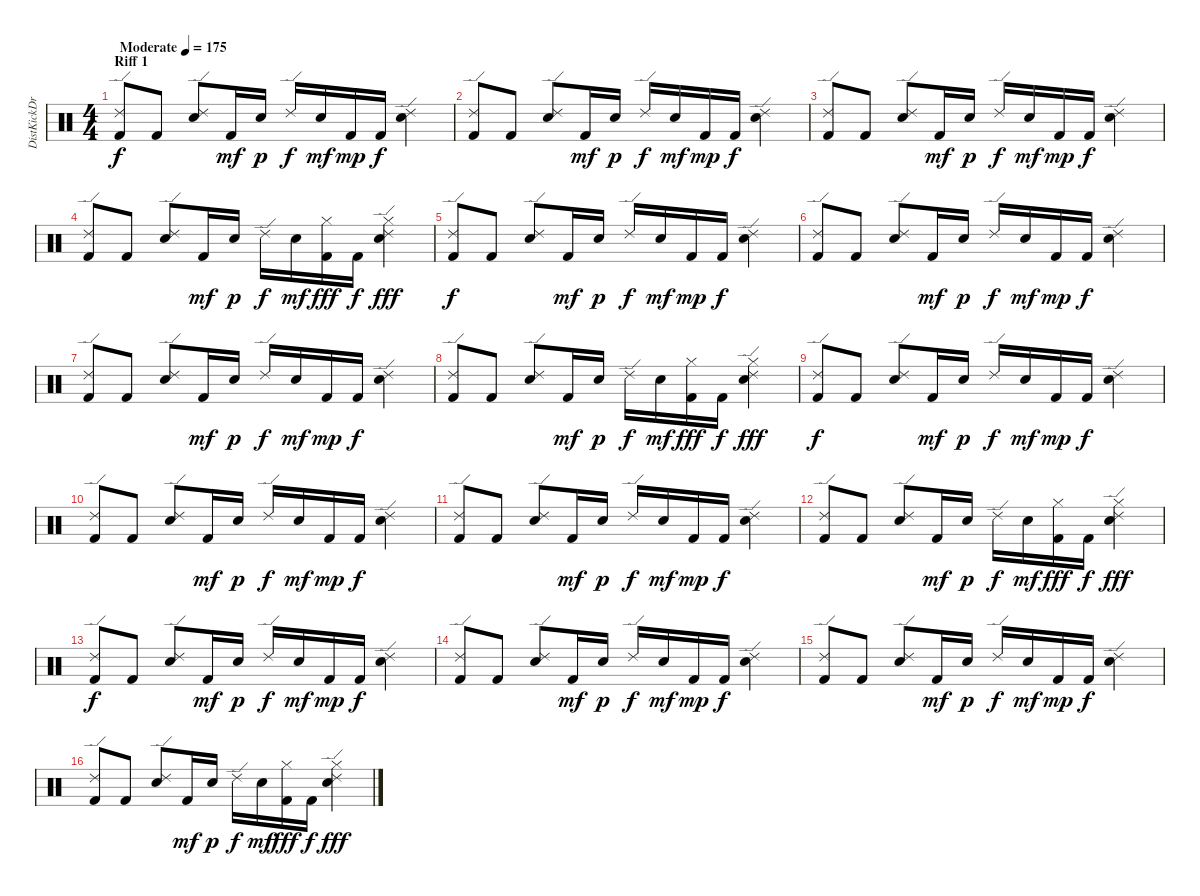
\track ("DistKickDrums" "DistKickDr") {instrument percussion}
\staff {score}
\articulation defaults
\ts (4 4)
\section ("" "Riff 1")
\tempo (175 "Moderate")
\clef neutral
\ks c
("Kick (hit) 2" "Ride (edge) 2").8{dy f} "Kick (hit) 2".8 ("Snare (hit) 2" "Ride (edge) 2").8 "Kick (hit) 2".16{dy mf} "Snare (hit) 2".16{dy p} "Ride (edge) 2".16{dy f} "Snare (hit) 2".16{dy mf} "Kick (hit) 2".16{dy mp} "Kick (hit) 2".16{dy f} ("Snare (hit) 2" "Ride (edge) 2").4 |
("Kick (hit) 2" "Ride (edge) 2").8 "Kick (hit) 2".8 ("Snare (hit) 2" "Ride (edge) 2").8 "Kick (hit) 2".16{dy mf} "Snare (hit) 2".16{dy p} "Ride (edge) 2".16{dy f} "Snare (hit) 2".16{dy mf} "Kick (hit) 2".16{dy mp} "Kick (hit) 2".16{dy f} ("Snare (hit) 2" "Ride (edge) 2").4 |
("Kick (hit) 2" "Ride (edge) 2").8 "Kick (hit) 2".8 ("Snare (hit) 2" "Ride (edge) 2").8 "Kick (hit) 2".16{dy mf} "Snare (hit) 2".16{dy p} "Ride (edge) 2".16{dy f} "Snare (hit) 2".16{dy mf} "Kick (hit) 2".16{dy mp} "Kick (hit) 2".16{dy f} ("Snare (hit) 2" "Ride (edge) 2").4 |
("Kick (hit) 2" "Ride (edge) 2").8 "Kick (hit) 2".8 ("Snare (hit) 2" "Ride (edge) 2").8 "Kick (hit) 2".16{dy mf} "Snare (hit) 2".16{dy p} "Ride (edge) 2".16{dy f} "Snare (hit) 2".16{dy mf} ("Kick (hit) 2" "Cowbell high (tip)").16{dy fff} "Kick (hit) 2".16{dy f} ("Snare (hit) 2" "Ride (edge) 2" "Cowbell high (tip)").4{dy fff} |
("Kick (hit) 2" "Ride (edge) 2").8{dy f} "Kick (hit) 2".8 ("Snare (hit) 2" "Ride (edge) 2").8 "Kick (hit) 2".16{dy mf} "Snare (hit) 2".16{dy p} "Ride (edge) 2".16{dy f} "Snare (hit) 2".16{dy mf} "Kick (hit) 2".16{dy mp} "Kick (hit) 2".16{dy f} ("Snare (hit) 2" "Ride (edge) 2").4 |
("Kick (hit) 2" "Ride (edge) 2").8 "Kick (hit) 2".8 ("Snare (hit) 2" "Ride (edge) 2").8 "Kick (hit) 2".16{dy mf} "Snare (hit) 2".16{dy p} "Ride (edge) 2".16{dy f} "Snare (hit) 2".16{dy mf} "Kick (hit) 2".16{dy mp} "Kick (hit) 2".16{dy f} ("Snare (hit) 2" "Ride (edge) 2").4 |
("Kick (hit) 2" "Ride (edge) 2").8 "Kick (hit) 2".8 ("Snare (hit) 2" "Ride (edge) 2").8 "Kick (hit) 2".16{dy mf} "Snare (hit) 2".16{dy p} "Ride (edge) 2".16{dy f} "Snare (hit) 2".16{dy mf} "Kick (hit) 2".16{dy mp} "Kick (hit) 2".16{dy f} ("Snare (hit) 2" "Ride (edge) 2").4 |
("Kick (hit) 2" "Ride (edge) 2").8 "Kick (hit) 2".8 ("Snare (hit) 2" "Ride (edge) 2").8 "Kick (hit) 2".16{dy mf} "Snare (hit) 2".16{dy p} "Ride (edge) 2".16{dy f} "Snare (hit) 2".16{dy mf} ("Kick (hit) 2" "Cowbell high (tip)").16{dy fff} "Kick (hit) 2".16{dy f} ("Snare (hit) 2" "Ride (edge) 2" "Cowbell high (tip)").4{dy fff} |
("Kick (hit) 2" "Ride (edge) 2").8{dy f} "Kick (hit) 2".8 ("Snare (hit) 2" "Ride (edge) 2").8 "Kick (hit) 2".16{dy mf} "Snare (hit) 2".16{dy p} "Ride (edge) 2".16{dy f} "Snare (hit) 2".16{dy mf} "Kick (hit) 2".16{dy mp} "Kick (hit) 2".16{dy f} ("Snare (hit) 2" "Ride (edge) 2").4 |
("Kick (hit) 2" "Ride (edge) 2").8 "Kick (hit) 2".8 ("Snare (hit) 2" "Ride (edge) 2").8 "Kick (hit) 2".16{dy mf} "Snare (hit) 2".16{dy p} "Ride (edge) 2".16{dy f} "Snare (hit) 2".16{dy mf} "Kick (hit) 2".16{dy mp} "Kick (hit) 2".16{dy f} ("Snare (hit) 2" "Ride (edge) 2").4 |
("Kick (hit) 2" "Ride (edge) 2").8 "Kick (hit) 2".8 ("Snare (hit) 2" "Ride (edge) 2").8 "Kick (hit) 2".16{dy mf} "Snare (hit) 2".16{dy p} "Ride (edge) 2".16{dy f} "Snare (hit) 2".16{dy mf} "Kick (hit) 2".16{dy mp} "Kick (hit) 2".16{dy f} ("Snare (hit) 2" "Ride (edge) 2").4 |
("Kick (hit) 2" "Ride (edge) 2").8 "Kick (hit) 2".8 ("Snare (hit) 2" "Ride (edge) 2").8 "Kick (hit) 2".16{dy mf} "Snare (hit) 2".16{dy p} "Ride (edge) 2".16{dy f} "Snare (hit) 2".16{dy mf} ("Kick (hit) 2" "Cowbell high (tip)").16{dy fff} "Kick (hit) 2".16{dy f} ("Snare (hit) 2" "Ride (edge) 2" "Cowbell high (tip)").4{dy fff} |
("Kick (hit) 2" "Ride (edge) 2").8{dy f} "Kick (hit) 2".8 ("Snare (hit) 2" "Ride (edge) 2").8 "Kick (hit) 2".16{dy mf} "Snare (hit) 2".16{dy p} "Ride (edge) 2".16{dy f} "Snare (hit) 2".16{dy mf} "Kick (hit) 2".16{dy mp} "Kick (hit) 2".16{dy f} ("Snare (hit) 2" "Ride (edge) 2").4 |
("Kick (hit) 2" "Ride (edge) 2").8 "Kick (hit) 2".8 ("Snare (hit) 2" "Ride (edge) 2").8 "Kick (hit) 2".16{dy mf} "Snare (hit) 2".16{dy p} "Ride (edge) 2".16{dy f} "Snare (hit) 2".16{dy mf} "Kick (hit) 2".16{dy mp} "Kick (hit) 2".16{dy f} ("Snare (hit) 2" "Ride (edge) 2").4 |
("Kick (hit) 2" "Ride (edge) 2").8 "Kick (hit) 2".8 ("Snare (hit) 2" "Ride (edge) 2").8 "Kick (hit) 2".16{dy mf} "Snare (hit) 2".16{dy p} "Ride (edge) 2".16{dy f} "Snare (hit) 2".16{dy mf} "Kick (hit) 2".16{dy mp} "Kick (hit) 2".16{dy f} ("Snare (hit) 2" "Ride (edge) 2").4 |
("Kick (hit) 2" "Ride (edge) 2").8 "Kick (hit) 2".8 ("Snare (hit) 2" "Ride (edge) 2").8 "Kick (hit) 2".16{dy mf} "Snare (hit) 2".16{dy p} "Ride (edge) 2".16{dy f} "Snare (hit) 2".16{dy mf} ("Kick (hit) 2" "Cowbell high (tip)").16{dy fff} "Kick (hit) 2".16{dy f} ("Snare (hit) 2" "Ride (edge) 2" "Cowbell high (tip)").4{dy fff}
